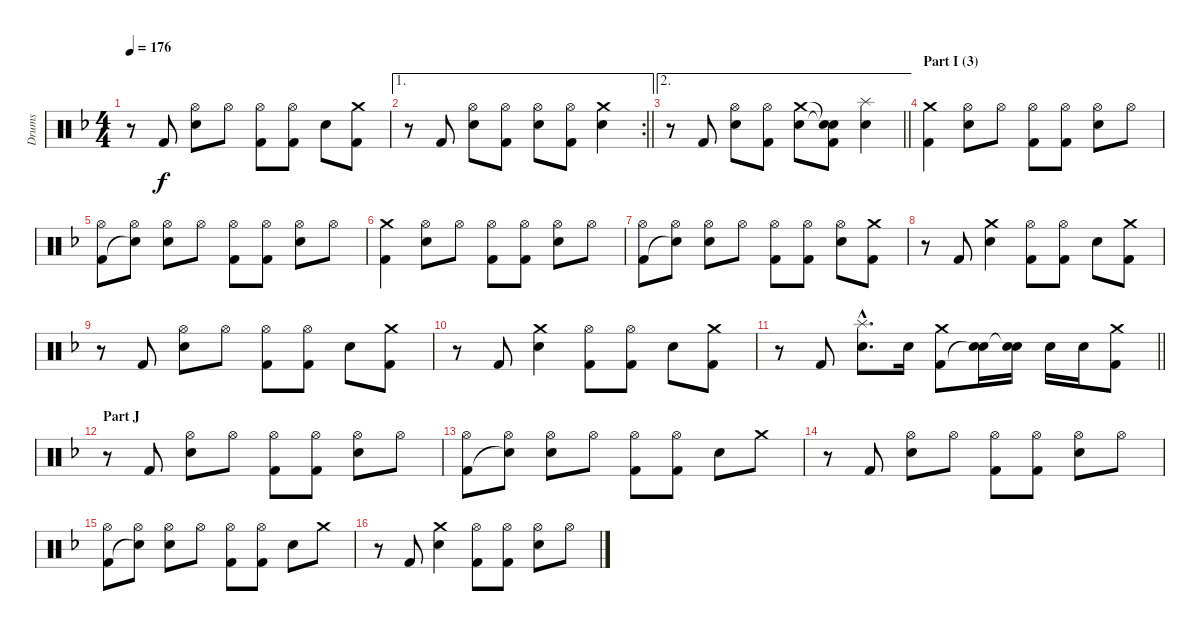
\track ("Drums" "Drums") {instrument percussion}
\staff {score}
\articulation defaults
\ts (4 4)
\tempo 176
\clef neutral
\ks f
r.8{dy f} "Kick (hit) 2".8 ("Hi-Hat (open)" "Electric Snare (hit)").8 "Hi-Hat (open)".8 ("Hi-Hat (open)" "Kick (hit) 2").8 ("Hi-Hat (open)" "Kick (hit) 2").8 "Electric Snare (hit)".8 ("Crash medium (hit)" "Kick (hit) 2").8 |
\ae 1
\rc 2
\barLineRight lightlight
r.8 "Kick (hit) 2".8 ("Hi-Hat (open)" "Electric Snare (hit)").8 ("Hi-Hat (open)" "Kick (hit) 2").8 ("Hi-Hat (open)" "Electric Snare (hit)").8 ("Hi-Hat (open)" "Kick (hit) 2").8 ("Crash medium (hit)" "Electric Snare (hit)").4 |
\ae 2
\barLineRight lightlight
r.8 "Kick (hit) 2".8 ("Hi-Hat (open)" "Electric Snare (hit)").8 ("Hi-Hat (open)" "Kick (hit) 2").8 ("Crash medium (hit)" "Electric Snare (hit)").8 ("Snare (hit)"{t} "Snare (hit)"{t} "Kick (hit) 2").8 ("Splash (hit)" "Electric Snare (hit)").4 |
\section ("" "Part I (3)")
("Crash medium (hit)" "Kick (hit) 2").4 ("Hi-Hat (open)" "Electric Snare (hit)").8 "Hi-Hat (open)".8 ("Hi-Hat (open)" "Kick (hit) 2").8 ("Hi-Hat (open)" "Kick (hit) 2").8 ("Hi-Hat (open)" "Electric Snare (hit)").8 "Hi-Hat (open)".8 |
("Hi-Hat (open)" "Kick (hit) 2").8 ("Hi-Hat (open)" "Snare (hit)"{t}).8 ("Hi-Hat (open)" "Electric Snare (hit)").8 "Hi-Hat (open)".8 ("Hi-Hat (open)" "Kick (hit) 2").8 ("Hi-Hat (open)" "Kick (hit) 2").8 ("Hi-Hat (open)" "Electric Snare (hit)").8 "Hi-Hat (open)".8 |
("Crash medium (hit)" "Kick (hit) 2").4 ("Hi-Hat (open)" "Electric Snare (hit)").8 "Hi-Hat (open)".8 ("Hi-Hat (open)" "Kick (hit) 2").8 ("Hi-Hat (open)" "Kick (hit) 2").8 ("Hi-Hat (open)" "Electric Snare (hit)").8 "Hi-Hat (open)".8 |
("Hi-Hat (open)" "Kick (hit) 2").8 ("Hi-Hat (open)" "Snare (hit)"{t}).8 ("Hi-Hat (open)" "Electric Snare (hit)").8 "Hi-Hat (open)".8 ("Hi-Hat (open)" "Kick (hit) 2").8 ("Hi-Hat (open)" "Kick (hit) 2").8 ("Hi-Hat (open)" "Electric Snare (hit)").8 ("Crash medium (hit)" "Kick (hit) 2").8 |
r.8 "Kick (hit) 2".8 ("Crash medium (hit)" "Electric Snare (hit)").4 ("Hi-Hat (open)" "Kick (hit) 2").8 ("Hi-Hat (open)" "Kick (hit) 2").8 "Electric Snare (hit)".8 ("Crash medium (hit)" "Kick (hit) 2").8 |
r.8 "Kick (hit) 2".8 ("Hi-Hat (open)" "Electric Snare (hit)").8 "Hi-Hat (open)".8 ("Hi-Hat (open)" "Kick (hit) 2").8 ("Hi-Hat (open)" "Kick (hit) 2").8 "Electric Snare (hit)".8 ("Crash medium (hit)" "Kick (hit) 2").8 |
r.8 "Kick (hit) 2".8 ("Crash medium (hit)" "Electric Snare (hit)").4 ("Hi-Hat (open)" "Kick (hit) 2").8 ("Hi-Hat (open)" "Kick (hit) 2").8 "Electric Snare (hit)".8 ("Crash medium (hit)" "Kick (hit) 2").8 |
\barLineRight lightlight
r.8 "Kick (hit) 2".8 ("Splash (hit)"{hac} "Electric Snare (hit)"{hac}).8{d} "Electric Snare (hit)".16 ("Crash medium (hit)" "Kick (hit) 2").8 ("Electric Snare (hit)" "Snare (hit)"{t}).16 ("Electric Snare (hit)" "Snare (hit)"{t}).16 "Electric Snare (hit)".16 "Electric Snare (hit)".16 ("Crash medium (hit)" "Kick (hit) 2").8 |
\section ("" "Part J")
r.8 "Kick (hit) 2".8 ("Hi-Hat (open)" "Electric Snare (hit)").8 "Hi-Hat (open)".8 ("Hi-Hat (open)" "Kick (hit) 2").8 ("Hi-Hat (open)" "Kick (hit) 2").8 ("Hi-Hat (open)" "Electric Snare (hit)").8 "Hi-Hat (open)".8 |
("Hi-Hat (open)" "Kick (hit) 2").8 ("Hi-Hat (open)" "Snare (hit)"{t}).8 ("Hi-Hat (open)" "Electric Snare (hit)").8 "Hi-Hat (open)".8 ("Hi-Hat (open)" "Kick (hit) 2").8 ("Hi-Hat (open)" "Kick (hit) 2").8 "Electric Snare (hit)".8 "Crash medium (hit)".8 |
r.8 "Kick (hit) 2".8 ("Hi-Hat (open)" "Electric Snare (hit)").8 "Hi-Hat (open)".8 ("Hi-Hat (open)" "Kick (hit) 2").8 ("Hi-Hat (open)" "Kick (hit) 2").8 ("Hi-Hat (open)" "Electric Snare (hit)").8 "Hi-Hat (open)".8 |
("Hi-Hat (open)" "Kick (hit) 2").8 ("Hi-Hat (open)" "Snare (hit)"{t}).8 ("Hi-Hat (open)" "Electric Snare (hit)").8 "Hi-Hat (open)".8 ("Hi-Hat (open)" "Kick (hit) 2").8 ("Hi-Hat (open)" "Kick (hit) 2").8 "Electric Snare (hit)".8 "Crash medium (hit)".8 |
r.8 "Kick (hit) 2".8 ("Crash medium (hit)" "Electric Snare (hit)").4 ("Hi-Hat (open)" "Kick (hit) 2").8 ("Hi-Hat (open)" "Kick (hit) 2").8 ("Hi-Hat (open)" "Electric Snare (hit)").8 "Hi-Hat (open)".8
